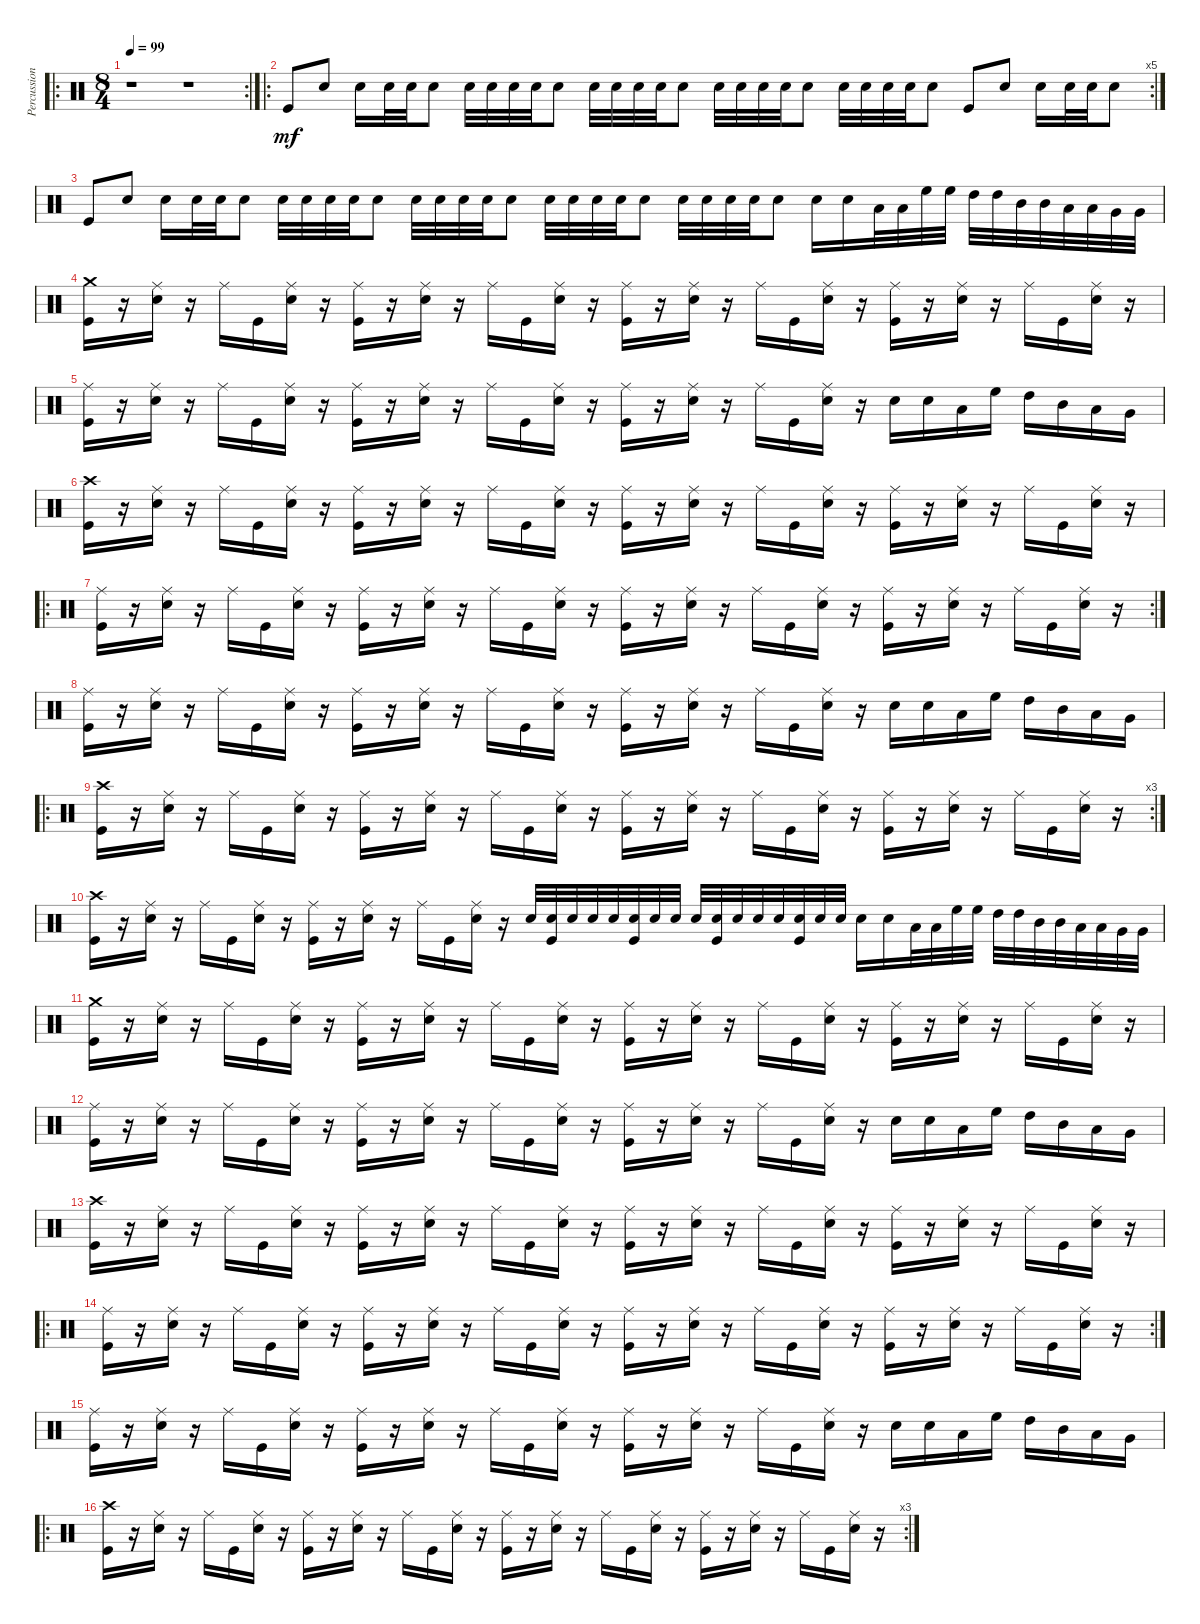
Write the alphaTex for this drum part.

\track ("Percussion" "Percussion") {instrument percussion}
\staff {score}
\articulation defaults
\ro
\rc 2
\ts (8 4)
\tempo 99
\clef neutral
\ks c
r.1{dy mf} r.1 |
\ro
\rc 5 "Kick (hit)".8 "Electric Snare (hit)".8 "Electric Snare (hit)".16 "Electric Snare (hit)".32 "Electric Snare (hit)".32 "Electric Snare (hit)".8 "Electric Snare (hit)".32 "Electric Snare (hit)".32 "Electric Snare (hit)".32 "Electric Snare (hit)".32 "Electric Snare (hit)".8 "Electric Snare (hit)".32 "Electric Snare (hit)".32 "Electric Snare (hit)".32 "Electric Snare (hit)".32 "Electric Snare (hit)".8 "Electric Snare (hit)".32 "Electric Snare (hit)".32 "Electric Snare (hit)".32 "Electric Snare (hit)".32 "Electric Snare (hit)".8 "Electric Snare (hit)".32 "Electric Snare (hit)".32 "Electric Snare (hit)".32 "Electric Snare (hit)".32 "Electric Snare (hit)".8 "Kick (hit)".8 "Electric Snare (hit)".8 "Electric Snare (hit)".16 "Electric Snare (hit)".32 "Electric Snare (hit)".32 "Electric Snare (hit)".8
|
"Kick (hit)".8 "Electric Snare (hit)".8 "Electric Snare (hit)".16 "Electric Snare (hit)".32 "Electric Snare (hit)".32 "Electric Snare (hit)".8 "Electric Snare (hit)".32 "Electric Snare (hit)".32 "Electric Snare (hit)".32 "Electric Snare (hit)".32 "Electric Snare (hit)".8 "Electric Snare (hit)".32 "Electric Snare (hit)".32 "Electric Snare (hit)".32 "Electric Snare (hit)".32 "Electric Snare (hit)".8 "Electric Snare (hit)".32 "Electric Snare (hit)".32 "Electric Snare (hit)".32 "Electric Snare (hit)".32 "Electric Snare (hit)".8 "Electric Snare (hit)".32 "Electric Snare (hit)".32 "Electric Snare (hit)".32 "Electric Snare (hit)".32 "Electric Snare (hit)".8 "Electric Snare (hit)".16 "Electric Snare (hit)".16 "Low Floor Tom (hit)".32 "Low Floor Tom (hit)".32 "High Floor Tom (hit)".32 "High Floor Tom (hit)".32 "High Tom (hit)".32 "High Tom (hit)".32 "Mid Tom (hit)".32 "Mid Tom (hit)".32 "Low Tom (hit)".32 "Low Tom (hit)".32 "Very Low Tom (hit)".32 "Very Low Tom (hit)".32 |
("Crash medium (hit)" "Kick (hit)").16 r.16 ("Ride (middle)" "Electric Snare (hit)").16 r.16 "Ride (middle)".16 "Kick (hit)".16 ("Ride (middle)" "Electric Snare (hit)").16 r.16 ("Ride (middle)" "Kick (hit)").16 r.16 ("Ride (middle)" "Electric Snare (hit)").16 r.16 "Ride (middle)".16 "Kick (hit)".16 ("Ride (middle)" "Electric Snare (hit)").16 r.16 ("Ride (middle)" "Kick (hit)").16 r.16 ("Ride (middle)" "Electric Snare (hit)").16 r.16 "Ride (middle)".16 "Kick (hit)".16 ("Ride (middle)" "Electric Snare (hit)").16 r.16 ("Ride (middle)" "Kick (hit)").16 r.16 ("Ride (middle)" "Electric Snare (hit)").16 r.16 "Ride (middle)".16 "Kick (hit)".16 ("Ride (middle)" "Electric Snare (hit)").16 r.16 |
("Ride (middle)" "Kick (hit)").16 r.16 ("Ride (middle)" "Electric Snare (hit)").16 r.16 "Ride (middle)".16 "Kick (hit)".16 ("Ride (middle)" "Electric Snare (hit)").16 r.16 ("Ride (middle)" "Kick (hit)").16 r.16 ("Ride (middle)" "Electric Snare (hit)").16 r.16 "Ride (middle)".16 "Kick (hit)".16 ("Ride (middle)" "Electric Snare (hit)").16 r.16 ("Ride (middle)" "Kick (hit)").16 r.16 ("Ride (middle)" "Electric Snare (hit)").16 r.16 "Ride (middle)".16 "Kick (hit)".16 ("Ride (middle)" "Electric Snare (hit)").16 r.16 "Electric Snare (hit)".16 "Electric Snare (hit)".16 "Low Floor Tom (hit)".16 "High Floor Tom (hit)".16 "High Tom (hit)".16 "Mid Tom (hit)".16 "Low Tom (hit)".16 "Very Low Tom (hit)".16 |
("Crash high (hit)" "Kick (hit)").16 r.16 ("Ride (middle)" "Electric Snare (hit)").16 r.16 "Ride (middle)".16 "Kick (hit)".16 ("Ride (middle)" "Electric Snare (hit)").16 r.16 ("Ride (middle)" "Kick (hit)").16 r.16 ("Ride (middle)" "Electric Snare (hit)").16 r.16 "Ride (middle)".16 "Kick (hit)".16 ("Ride (middle)" "Electric Snare (hit)").16 r.16 ("Ride (middle)" "Kick (hit)").16 r.16 ("Ride (middle)" "Electric Snare (hit)").16 r.16 "Ride (middle)".16 "Kick (hit)".16 ("Ride (middle)" "Electric Snare (hit)").16 r.16 ("Ride (middle)" "Kick (hit)").16 r.16 ("Ride (middle)" "Electric Snare (hit)").16 r.16 "Ride (middle)".16 "Kick (hit)".16 ("Ride (middle)" "Electric Snare (hit)").16 r.16 |
\ro
\rc 2
("Ride (middle)" "Kick (hit)").16 r.16 ("Ride (middle)" "Electric Snare (hit)").16 r.16 "Ride (middle)".16 "Kick (hit)".16 ("Ride (middle)" "Electric Snare (hit)").16 r.16 ("Ride (middle)" "Kick (hit)").16 r.16 ("Ride (middle)" "Electric Snare (hit)").16 r.16 "Ride (middle)".16 "Kick (hit)".16 ("Ride (middle)" "Electric Snare (hit)").16 r.16 ("Ride (middle)" "Kick (hit)").16 r.16 ("Ride (middle)" "Electric Snare (hit)").16 r.16 "Ride (middle)".16 "Kick (hit)".16 ("Ride (middle)" "Electric Snare (hit)").16 r.16 ("Ride (middle)" "Kick (hit)").16 r.16 ("Ride (middle)" "Electric Snare (hit)").16 r.16 "Ride (middle)".16 "Kick (hit)".16 ("Ride (middle)" "Electric Snare (hit)").16 r.16 |
("Ride (middle)" "Kick (hit)").16 r.16 ("Ride (middle)" "Electric Snare (hit)").16 r.16 "Ride (middle)".16 "Kick (hit)".16 ("Ride (middle)" "Electric Snare (hit)").16 r.16 ("Ride (middle)" "Kick (hit)").16 r.16 ("Ride (middle)" "Electric Snare (hit)").16 r.16 "Ride (middle)".16 "Kick (hit)".16 ("Ride (middle)" "Electric Snare (hit)").16 r.16 ("Ride (middle)" "Kick (hit)").16 r.16 ("Ride (middle)" "Electric Snare (hit)").16 r.16 "Ride (middle)".16 "Kick (hit)".16 ("Ride (middle)" "Electric Snare (hit)").16 r.16 "Electric Snare (hit)".16 "Electric Snare (hit)".16 "Low Floor Tom (hit)".16 "High Floor Tom (hit)".16 "High Tom (hit)".16 "Mid Tom (hit)".16 "Low Tom (hit)".16 "Very Low Tom (hit)".16 |
\ro
\rc 3
("Crash high (hit)" "Kick (hit)").16 r.16 ("Ride (middle)" "Electric Snare (hit)").16 r.16 "Ride (middle)".16 "Kick (hit)".16 ("Ride (middle)" "Electric Snare (hit)").16 r.16 ("Ride (middle)" "Kick (hit)").16 r.16 ("Ride (middle)" "Electric Snare (hit)").16 r.16 "Ride (middle)".16 "Kick (hit)".16 ("Ride (middle)" "Electric Snare (hit)").16 r.16 ("Ride (middle)" "Kick (hit)").16 r.16 ("Ride (middle)" "Electric Snare (hit)").16 r.16 "Ride (middle)".16 "Kick (hit)".16 ("Ride (middle)" "Electric Snare (hit)").16 r.16 ("Ride (middle)" "Kick (hit)").16 r.16 ("Ride (middle)" "Electric Snare (hit)").16 r.16 "Ride (middle)".16 "Kick (hit)".16 ("Ride (middle)" "Electric Snare (hit)").16 r.16 |
("Crash high (hit)" "Kick (hit)").16 r.16 ("Ride (middle)" "Electric Snare (hit)").16 r.16 "Ride (middle)".16 "Kick (hit)".16 ("Ride (middle)" "Electric Snare (hit)").16 r.16 ("Ride (middle)" "Kick (hit)").16 r.16 ("Ride (middle)" "Electric Snare (hit)").16 r.16 "Ride (middle)".16 "Kick (hit)".16 ("Ride (middle)" "Electric Snare (hit)").16 r.16 "Electric Snare (hit)".32 ("Electric Snare (hit)" "Kick (hit)").32 "Electric Snare (hit)".32 "Electric Snare (hit)".32 "Electric Snare (hit)".32 ("Electric Snare (hit)" "Kick (hit)").32 "Electric Snare (hit)".32 "Electric Snare (hit)".32 "Electric Snare (hit)".32 ("Electric Snare (hit)" "Kick (hit)").32 "Electric Snare (hit)".32 "Electric Snare (hit)".32 "Electric Snare (hit)".32 ("Electric Snare (hit)" "Kick (hit)").32 "Electric Snare (hit)".32 "Electric Snare (hit)".32 "Electric Snare (hit)".16 "Electric Snare (hit)".16 "Low Floor Tom (hit)".32 "Low Floor Tom (hit)".32 "High Floor Tom (hit)".32 "High Floor Tom (hit)".32 "High Tom (hit)".32 "High Tom (hit)".32 "Mid Tom (hit)".32 "Mid Tom (hit)".32 "Low Tom (hit)".32 "Low Tom (hit)".32 "Very Low Tom (hit)".32 "Very Low Tom (hit)".32 |
("Crash medium (hit)" "Kick (hit)").16 r.16 ("Ride (middle)" "Electric Snare (hit)").16 r.16 "Ride (middle)".16 "Kick (hit)".16 ("Ride (middle)" "Electric Snare (hit)").16 r.16 ("Ride (middle)" "Kick (hit)").16 r.16 ("Ride (middle)" "Electric Snare (hit)").16 r.16 "Ride (middle)".16 "Kick (hit)".16 ("Ride (middle)" "Electric Snare (hit)").16 r.16 ("Ride (middle)" "Kick (hit)").16 r.16 ("Ride (middle)" "Electric Snare (hit)").16 r.16 "Ride (middle)".16 "Kick (hit)".16 ("Ride (middle)" "Electric Snare (hit)").16 r.16 ("Ride (middle)" "Kick (hit)").16 r.16 ("Ride (middle)" "Electric Snare (hit)").16 r.16 "Ride (middle)".16 "Kick (hit)".16 ("Ride (middle)" "Electric Snare (hit)").16 r.16 |
("Ride (middle)" "Kick (hit)").16 r.16 ("Ride (middle)" "Electric Snare (hit)").16 r.16 "Ride (middle)".16 "Kick (hit)".16 ("Ride (middle)" "Electric Snare (hit)").16 r.16 ("Ride (middle)" "Kick (hit)").16 r.16 ("Ride (middle)" "Electric Snare (hit)").16 r.16 "Ride (middle)".16 "Kick (hit)".16 ("Ride (middle)" "Electric Snare (hit)").16 r.16 ("Ride (middle)" "Kick (hit)").16 r.16 ("Ride (middle)" "Electric Snare (hit)").16 r.16 "Ride (middle)".16 "Kick (hit)".16 ("Ride (middle)" "Electric Snare (hit)").16 r.16 "Electric Snare (hit)".16 "Electric Snare (hit)".16 "Low Floor Tom (hit)".16 "High Floor Tom (hit)".16 "High Tom (hit)".16 "Mid Tom (hit)".16 "Low Tom (hit)".16 "Very Low Tom (hit)".16 |
("Crash high (hit)" "Kick (hit)").16 r.16 ("Ride (middle)" "Electric Snare (hit)").16 r.16 "Ride (middle)".16 "Kick (hit)".16 ("Ride (middle)" "Electric Snare (hit)").16 r.16 ("Ride (middle)" "Kick (hit)").16 r.16 ("Ride (middle)" "Electric Snare (hit)").16 r.16 "Ride (middle)".16 "Kick (hit)".16 ("Ride (middle)" "Electric Snare (hit)").16 r.16 ("Ride (middle)" "Kick (hit)").16 r.16 ("Ride (middle)" "Electric Snare (hit)").16 r.16 "Ride (middle)".16 "Kick (hit)".16 ("Ride (middle)" "Electric Snare (hit)").16 r.16 ("Ride (middle)" "Kick (hit)").16 r.16 ("Ride (middle)" "Electric Snare (hit)").16 r.16 "Ride (middle)".16 "Kick (hit)".16 ("Ride (middle)" "Electric Snare (hit)").16 r.16 |
\ro
\rc 2
("Ride (middle)" "Kick (hit)").16 r.16 ("Ride (middle)" "Electric Snare (hit)").16 r.16 "Ride (middle)".16 "Kick (hit)".16 ("Ride (middle)" "Electric Snare (hit)").16 r.16 ("Ride (middle)" "Kick (hit)").16 r.16 ("Ride (middle)" "Electric Snare (hit)").16 r.16 "Ride (middle)".16 "Kick (hit)".16 ("Ride (middle)" "Electric Snare (hit)").16 r.16 ("Ride (middle)" "Kick (hit)").16 r.16 ("Ride (middle)" "Electric Snare (hit)").16 r.16 "Ride (middle)".16 "Kick (hit)".16 ("Ride (middle)" "Electric Snare (hit)").16 r.16 ("Ride (middle)" "Kick (hit)").16 r.16 ("Ride (middle)" "Electric Snare (hit)").16 r.16 "Ride (middle)".16 "Kick (hit)".16 ("Ride (middle)" "Electric Snare (hit)").16 r.16 |
("Ride (middle)" "Kick (hit)").16 r.16 ("Ride (middle)" "Electric Snare (hit)").16 r.16 "Ride (middle)".16 "Kick (hit)".16 ("Ride (middle)" "Electric Snare (hit)").16 r.16 ("Ride (middle)" "Kick (hit)").16 r.16 ("Ride (middle)" "Electric Snare (hit)").16 r.16 "Ride (middle)".16 "Kick (hit)".16 ("Ride (middle)" "Electric Snare (hit)").16 r.16 ("Ride (middle)" "Kick (hit)").16 r.16 ("Ride (middle)" "Electric Snare (hit)").16 r.16 "Ride (middle)".16 "Kick (hit)".16 ("Ride (middle)" "Electric Snare (hit)").16 r.16 "Electric Snare (hit)".16 "Electric Snare (hit)".16 "Low Floor Tom (hit)".16 "High Floor Tom (hit)".16 "High Tom (hit)".16 "Mid Tom (hit)".16 "Low Tom (hit)".16 "Very Low Tom (hit)".16 |
\ro
\rc 3
("Crash high (hit)" "Kick (hit)").16 r.16 ("Ride (middle)" "Electric Snare (hit)").16 r.16 "Ride (middle)".16 "Kick (hit)".16 ("Ride (middle)" "Electric Snare (hit)").16 r.16 ("Ride (middle)" "Kick (hit)").16 r.16 ("Ride (middle)" "Electric Snare (hit)").16 r.16 "Ride (middle)".16 "Kick (hit)".16 ("Ride (middle)" "Electric Snare (hit)").16 r.16 ("Ride (middle)" "Kick (hit)").16 r.16 ("Ride (middle)" "Electric Snare (hit)").16 r.16 "Ride (middle)".16 "Kick (hit)".16 ("Ride (middle)" "Electric Snare (hit)").16 r.16 ("Ride (middle)" "Kick (hit)").16 r.16 ("Ride (middle)" "Electric Snare (hit)").16 r.16 "Ride (middle)".16 "Kick (hit)".16 ("Ride (middle)" "Electric Snare (hit)").16 r.16
